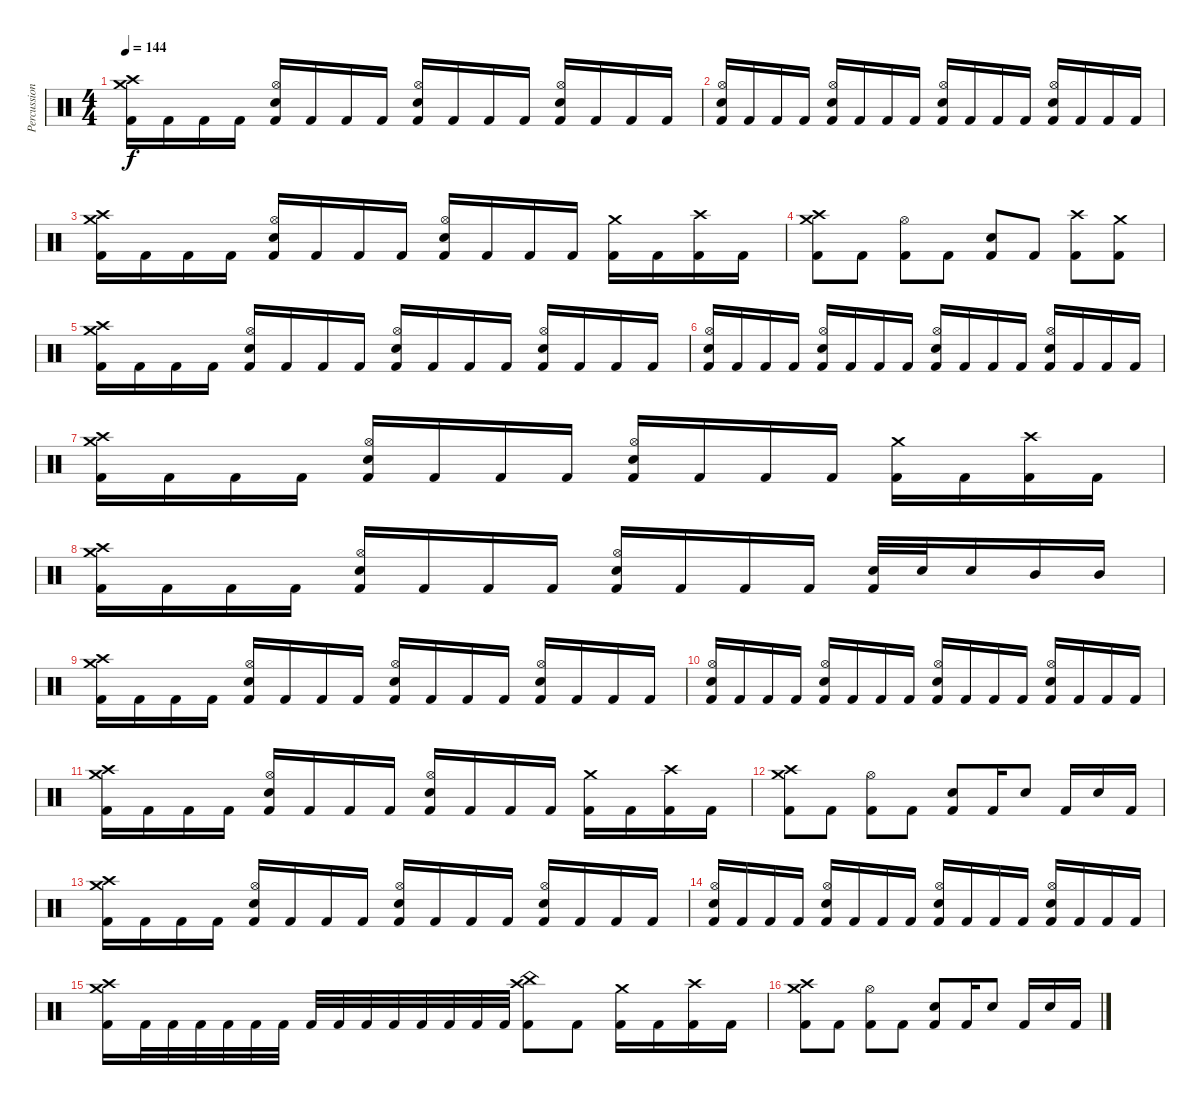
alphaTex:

\track ("Percussion" "Percussion") {instrument percussion}
\staff {score}
\articulation defaults
\ts (4 4)
\tempo 144
\clef neutral
\ks c
("Crash medium (hit)" "Crash high (hit)" "Kick (hit) 2").16{dy f} "Kick (hit) 2".16 "Kick (hit) 2".16 "Kick (hit) 2".16 ("Hi-Hat (open)" "Electric Snare (hit)" "Kick (hit) 2").16 "Kick (hit) 2".16 "Kick (hit) 2".16 "Kick (hit) 2".16 ("Hi-Hat (open)" "Electric Snare (hit)" "Kick (hit) 2").16 "Kick (hit) 2".16 "Kick (hit) 2".16 "Kick (hit) 2".16 ("Hi-Hat (open)" "Electric Snare (hit)" "Kick (hit) 2").16 "Kick (hit) 2".16 "Kick (hit) 2".16 "Kick (hit) 2".16 |
("Hi-Hat (open)" "Electric Snare (hit)" "Kick (hit) 2").16 "Kick (hit) 2".16 "Kick (hit) 2".16 "Kick (hit) 2".16 ("Hi-Hat (open)" "Electric Snare (hit)" "Kick (hit) 2").16 "Kick (hit) 2".16 "Kick (hit) 2".16 "Kick (hit) 2".16 ("Hi-Hat (open)" "Electric Snare (hit)" "Kick (hit) 2").16 "Kick (hit) 2".16 "Kick (hit) 2".16 "Kick (hit) 2".16 ("Hi-Hat (open)" "Electric Snare (hit)" "Kick (hit) 2").16 "Kick (hit) 2".16 "Kick (hit) 2".16 "Kick (hit) 2".16 |
("Crash medium (hit)" "Crash high (hit)" "Kick (hit) 2").16 "Kick (hit) 2".16 "Kick (hit) 2".16 "Kick (hit) 2".16 ("Hi-Hat (open)" "Electric Snare (hit)" "Kick (hit) 2").16 "Kick (hit) 2".16 "Kick (hit) 2".16 "Kick (hit) 2".16 ("Hi-Hat (open)" "Electric Snare (hit)" "Kick (hit) 2").16 "Kick (hit) 2".16 "Kick (hit) 2".16 "Kick (hit) 2".16 ("Crash medium (hit)" "Kick (hit) 2").16 "Kick (hit) 2".16 ("Crash high (hit)" "Kick (hit) 2").16 "Kick (hit) 2".16 |
("Crash medium (hit)" "Crash high (hit)" "Kick (hit) 2").8 "Kick (hit) 2".8 ("Hi-Hat (open)" "Kick (hit) 2").8 "Kick (hit) 2".8 ("Electric Snare (hit)" "Kick (hit) 2").8 "Kick (hit) 2".8 ("Crash high (hit)" "Kick (hit) 2").8 ("Crash medium (hit)" "Kick (hit) 2").8 |
("Crash medium (hit)" "Crash high (hit)" "Kick (hit) 2").16 "Kick (hit) 2".16 "Kick (hit) 2".16 "Kick (hit) 2".16 ("Hi-Hat (open)" "Electric Snare (hit)" "Kick (hit) 2").16 "Kick (hit) 2".16 "Kick (hit) 2".16 "Kick (hit) 2".16 ("Hi-Hat (open)" "Electric Snare (hit)" "Kick (hit) 2").16 "Kick (hit) 2".16 "Kick (hit) 2".16 "Kick (hit) 2".16 ("Hi-Hat (open)" "Electric Snare (hit)" "Kick (hit) 2").16 "Kick (hit) 2".16 "Kick (hit) 2".16 "Kick (hit) 2".16 |
("Hi-Hat (open)" "Electric Snare (hit)" "Kick (hit) 2").16 "Kick (hit) 2".16 "Kick (hit) 2".16 "Kick (hit) 2".16 ("Hi-Hat (open)" "Electric Snare (hit)" "Kick (hit) 2").16 "Kick (hit) 2".16 "Kick (hit) 2".16 "Kick (hit) 2".16 ("Hi-Hat (open)" "Electric Snare (hit)" "Kick (hit) 2").16 "Kick (hit) 2".16 "Kick (hit) 2".16 "Kick (hit) 2".16 ("Hi-Hat (open)" "Electric Snare (hit)" "Kick (hit) 2").16 "Kick (hit) 2".16 "Kick (hit) 2".16 "Kick (hit) 2".16 |
("Crash medium (hit)" "Crash high (hit)" "Kick (hit) 2").16 "Kick (hit) 2".16 "Kick (hit) 2".16 "Kick (hit) 2".16 ("Hi-Hat (open)" "Electric Snare (hit)" "Kick (hit) 2").16 "Kick (hit) 2".16 "Kick (hit) 2".16 "Kick (hit) 2".16 ("Hi-Hat (open)" "Electric Snare (hit)" "Kick (hit) 2").16 "Kick (hit) 2".16 "Kick (hit) 2".16 "Kick (hit) 2".16 ("Crash medium (hit)" "Kick (hit) 2").16 "Kick (hit) 2".16 ("Crash high (hit)" "Kick (hit) 2").16 "Kick (hit) 2".16 |
("Crash medium (hit)" "Crash high (hit)" "Kick (hit) 2").16 "Kick (hit) 2".16 "Kick (hit) 2".16 "Kick (hit) 2".16 ("Hi-Hat (open)" "Electric Snare (hit)" "Kick (hit) 2").16 "Kick (hit) 2".16 "Kick (hit) 2".16 "Kick (hit) 2".16 ("Hi-Hat (open)" "Electric Snare (hit)" "Kick (hit) 2").16 "Kick (hit) 2".16 "Kick (hit) 2".16 "Kick (hit) 2".16 ("Electric Snare (hit)" "Kick (hit) 2").32 "Electric Snare (hit)".32 "Electric Snare (hit)".16 "Mid Tom (hit)".16 "Mid Tom (hit)".16 |
("Crash medium (hit)" "Crash high (hit)" "Kick (hit) 2").16 "Kick (hit) 2".16 "Kick (hit) 2".16 "Kick (hit) 2".16 ("Hi-Hat (open)" "Electric Snare (hit)" "Kick (hit) 2").16 "Kick (hit) 2".16 "Kick (hit) 2".16 "Kick (hit) 2".16 ("Hi-Hat (open)" "Electric Snare (hit)" "Kick (hit) 2").16 "Kick (hit) 2".16 "Kick (hit) 2".16 "Kick (hit) 2".16 ("Hi-Hat (open)" "Electric Snare (hit)" "Kick (hit) 2").16 "Kick (hit) 2".16 "Kick (hit) 2".16 "Kick (hit) 2".16 |
("Hi-Hat (open)" "Electric Snare (hit)" "Kick (hit) 2").16 "Kick (hit) 2".16 "Kick (hit) 2".16 "Kick (hit) 2".16 ("Hi-Hat (open)" "Electric Snare (hit)" "Kick (hit) 2").16 "Kick (hit) 2".16 "Kick (hit) 2".16 "Kick (hit) 2".16 ("Hi-Hat (open)" "Electric Snare (hit)" "Kick (hit) 2").16 "Kick (hit) 2".16 "Kick (hit) 2".16 "Kick (hit) 2".16 ("Hi-Hat (open)" "Electric Snare (hit)" "Kick (hit) 2").16 "Kick (hit) 2".16 "Kick (hit) 2".16 "Kick (hit) 2".16 |
("Crash medium (hit)" "Crash high (hit)" "Kick (hit) 2").16 "Kick (hit) 2".16 "Kick (hit) 2".16 "Kick (hit) 2".16 ("Hi-Hat (open)" "Electric Snare (hit)" "Kick (hit) 2").16 "Kick (hit) 2".16 "Kick (hit) 2".16 "Kick (hit) 2".16 ("Hi-Hat (open)" "Electric Snare (hit)" "Kick (hit) 2").16 "Kick (hit) 2".16 "Kick (hit) 2".16 "Kick (hit) 2".16 ("Crash medium (hit)" "Kick (hit) 2").16 "Kick (hit) 2".16 ("Crash high (hit)" "Kick (hit) 2").16 "Kick (hit) 2".16 |
("Crash medium (hit)" "Crash high (hit)" "Kick (hit) 2").8 "Kick (hit) 2".8 ("Hi-Hat (open)" "Kick (hit) 2").8 "Kick (hit) 2".8 ("Electric Snare (hit)" "Kick (hit) 2").8 "Kick (hit) 2".16 "Electric Snare (hit)".8 "Kick (hit) 2".16 "Electric Snare (hit)".16 "Kick (hit) 2".16 |
("Crash medium (hit)" "Crash high (hit)" "Kick (hit) 2").16 "Kick (hit) 2".16 "Kick (hit) 2".16 "Kick (hit) 2".16 ("Hi-Hat (open)" "Electric Snare (hit)" "Kick (hit) 2").16 "Kick (hit) 2".16 "Kick (hit) 2".16 "Kick (hit) 2".16 ("Hi-Hat (open)" "Electric Snare (hit)" "Kick (hit) 2").16 "Kick (hit) 2".16 "Kick (hit) 2".16 "Kick (hit) 2".16 ("Hi-Hat (open)" "Electric Snare (hit)" "Kick (hit) 2").16 "Kick (hit) 2".16 "Kick (hit) 2".16 "Kick (hit) 2".16 |
("Hi-Hat (open)" "Electric Snare (hit)" "Kick (hit) 2").16 "Kick (hit) 2".16 "Kick (hit) 2".16 "Kick (hit) 2".16 ("Hi-Hat (open)" "Electric Snare (hit)" "Kick (hit) 2").16 "Kick (hit) 2".16 "Kick (hit) 2".16 "Kick (hit) 2".16 ("Hi-Hat (open)" "Electric Snare (hit)" "Kick (hit) 2").16 "Kick (hit) 2".16 "Kick (hit) 2".16 "Kick (hit) 2".16 ("Hi-Hat (open)" "Electric Snare (hit)" "Kick (hit) 2").16 "Kick (hit) 2".16 "Kick (hit) 2".16 "Kick (hit) 2".16 |
("Crash medium (hit)" "Crash high (hit)" "Kick (hit) 2").16 "Kick (hit) 2".32 "Kick (hit) 2".32 "Kick (hit) 2".32 "Kick (hit) 2".32 "Kick (hit) 2".32 "Kick (hit) 2".32 "Kick (hit) 2".32 "Kick (hit) 2".32 "Kick (hit) 2".32 "Kick (hit) 2".32 "Kick (hit) 2".32 "Kick (hit) 2".32 "Kick (hit) 2".32 "Kick (hit) 2".32 ("Crash high (hit)" "China (hit)" "Kick (hit) 2").8 "Kick (hit) 2".8 ("Crash medium (hit)" "Kick (hit) 2").16 "Kick (hit) 2".16 ("Crash high (hit)" "Kick (hit) 2").16 "Kick (hit) 2".16 |
("Crash medium (hit)" "Crash high (hit)" "Kick (hit) 2").8 "Kick (hit) 2".8 ("Hi-Hat (open)" "Kick (hit) 2").8 "Kick (hit) 2".8 ("Electric Snare (hit)" "Kick (hit) 2").8 "Kick (hit) 2".16 "Electric Snare (hit)".8 "Kick (hit) 2".16 "Electric Snare (hit)".16 "Kick (hit) 2".16
